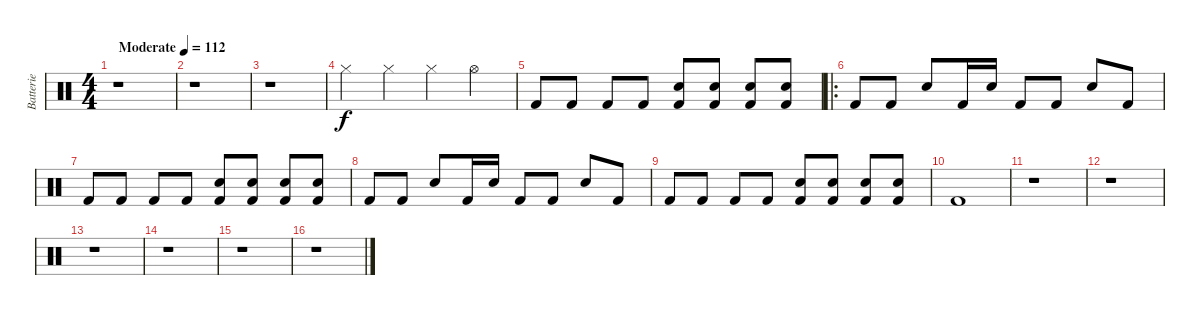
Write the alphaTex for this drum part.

\track ("Batterie" "Batterie") {instrument percussion}
\staff {score}
\articulation defaults
\ts (4 4)
\tempo (112 "Moderate")
\clef neutral
\ks c
r.1{dy f} |
r.1 |
r.1 |
"Hi-Hat (closed)".4 "Hi-Hat (closed)".4 "Hi-Hat (closed)".4 "Hi-Hat (open)".4 |
"Kick (hit) 2".8 "Kick (hit) 2".8 "Kick (hit) 2".8 "Kick (hit) 2".8 ("Snare (hit) 2" "Kick (hit) 2").8 ("Snare (hit) 2" "Kick (hit) 2").8 ("Snare (hit) 2" "Kick (hit) 2").8 ("Snare (hit) 2" "Kick (hit) 2").8 |
\ro "Kick (hit) 2".8 "Kick (hit) 2".8 "Snare (hit) 2".8 "Kick (hit) 2".16 "Snare (hit) 2".16 "Kick (hit) 2".8 "Kick (hit) 2".8 "Snare (hit) 2".8 "Kick (hit) 2".8
|
"Kick (hit) 2".8 "Kick (hit) 2".8 "Kick (hit) 2".8 "Kick (hit) 2".8 ("Snare (hit) 2" "Kick (hit) 2").8 ("Snare (hit) 2" "Kick (hit) 2").8 ("Snare (hit) 2" "Kick (hit) 2").8 ("Snare (hit) 2" "Kick (hit) 2").8 |
"Kick (hit) 2".8 "Kick (hit) 2".8 "Snare (hit) 2".8 "Kick (hit) 2".16 "Snare (hit) 2".16 "Kick (hit) 2".8 "Kick (hit) 2".8 "Snare (hit) 2".8 "Kick (hit) 2".8 |
"Kick (hit) 2".8 "Kick (hit) 2".8 "Kick (hit) 2".8 "Kick (hit) 2".8 ("Snare (hit) 2" "Kick (hit) 2").8 ("Snare (hit) 2" "Kick (hit) 2").8 ("Snare (hit) 2" "Kick (hit) 2").8 ("Snare (hit) 2" "Kick (hit) 2").8 |
"Kick (hit) 2".1 |
r.1 |
r.1 |
r.1 |
r.1 |
r.1 |
r.1
